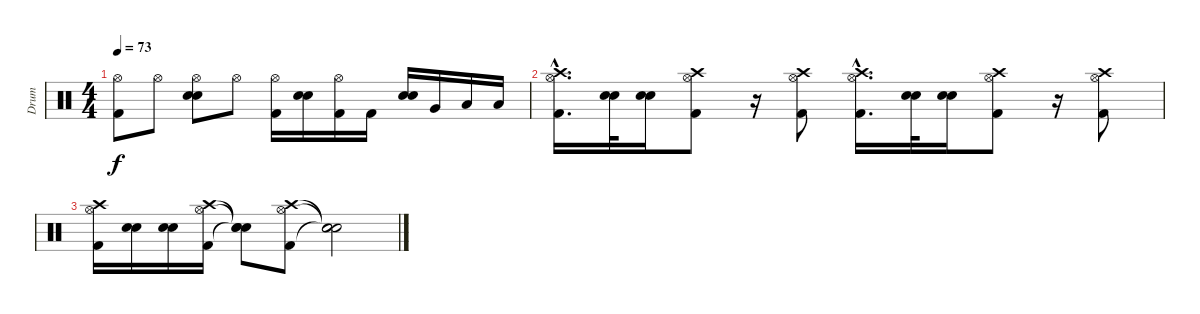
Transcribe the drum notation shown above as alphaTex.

\track ("Drum" "Drum") {instrument percussion}
\staff {score}
\articulation defaults
\ts (4 4)
\tempo 73
\clef neutral
\ks c
("Hi-Hat (open)" "Kick (hit) 2").8{dy f} "Hi-Hat (open)".8 ("Hi-Hat (open)" "Electric Snare (hit)" "Electric Snare (hit)").8 "Hi-Hat (open)".8 ("Hi-Hat (open)" "Kick (hit) 2").16 ("Electric Snare (hit)" "Electric Snare (hit)").16 ("Hi-Hat (open)" "Kick (hit) 2").16 "Kick (hit) 2".16 ("Electric Snare (hit)" "Electric Snare (hit)").16 "Very Low Tom (hit)".16 "Low Floor Tom (hit)".16 "Low Floor Tom (hit)".16 |
("Crash high (hit)"{hac} "Hi-Hat (open)"{hac} "Kick (hit) 2"{hac}).16{d} ("Electric Snare (hit)" "Electric Snare (hit)").32 ("Electric Snare (hit)" "Electric Snare (hit)").16 ("Crash high (hit)" "Hi-Hat (open)" "Kick (hit) 2").8 r.16 ("Crash high (hit)" "Hi-Hat (open)" "Kick (hit) 2").8 ("Crash high (hit)"{hac} "Hi-Hat (open)"{hac} "Kick (hit) 2"{hac}).16{d} ("Electric Snare (hit)" "Electric Snare (hit)").32 ("Electric Snare (hit)" "Electric Snare (hit)").16 ("Crash high (hit)" "Hi-Hat (open)" "Kick (hit) 2").8 r.16 ("Crash high (hit)" "Hi-Hat (open)" "Kick (hit) 2").8 |
("Crash high (hit)" "Hi-Hat (open)" "Kick (hit) 2").16 ("Electric Snare (hit)" "Electric Snare (hit)").16 ("Electric Snare (hit)" "Electric Snare (hit)").16 ("Crash high (hit)" "Hi-Hat (open)" "Kick (hit) 2").16 ("Snare (hit)"{t} "Snare (hit)"{t} "Snare (hit)"{t}).8 ("Crash high (hit)" "Hi-Hat (open)" "Kick (hit) 2").8 ("Snare (hit)"{t} "Snare (hit)"{t} "Snare (hit)"{t}).2
